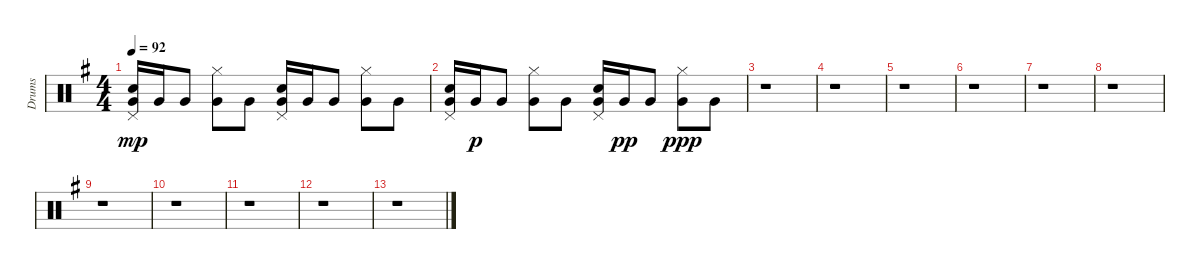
\track ("Drums" "Drums") {instrument percussion}
\staff {score}
\articulation defaults
\ts (4 4)
\tempo 92
\clef neutral
\ks g
("Pedal Hi-Hat (hit)" "Very Low Tom (hit)" "Snare (hit) 2").16{dy mp} "Very Low Tom (hit)".16 "Very Low Tom (hit)".8 ("Hi-Hat (closed)" "Very Low Tom (hit)").8 "Very Low Tom (hit)".8 ("Pedal Hi-Hat (hit)" "Very Low Tom (hit)" "Snare (hit) 2").16 "Very Low Tom (hit)".16 "Very Low Tom (hit)".8 ("Hi-Hat (closed)" "Very Low Tom (hit)").8 "Very Low Tom (hit)".8 |
("Pedal Hi-Hat (hit)" "Very Low Tom (hit)" "Snare (hit) 2").16 "Very Low Tom (hit)".16{dy p} "Very Low Tom (hit)".8 ("Hi-Hat (closed)" "Very Low Tom (hit)").8 "Very Low Tom (hit)".8 ("Pedal Hi-Hat (hit)" "Very Low Tom (hit)" "Snare (hit) 2").16 "Very Low Tom (hit)".16{dy pp} "Very Low Tom (hit)".8 ("Hi-Hat (closed)" "Very Low Tom (hit)").8{dy ppp} "Very Low Tom (hit)".8 |
r.1 |
r.1 |
r.1 |
r.1 |
r.1 |
r.1 |
r.1 |
r.1 |
r.1 |
r.1 |
r.1
